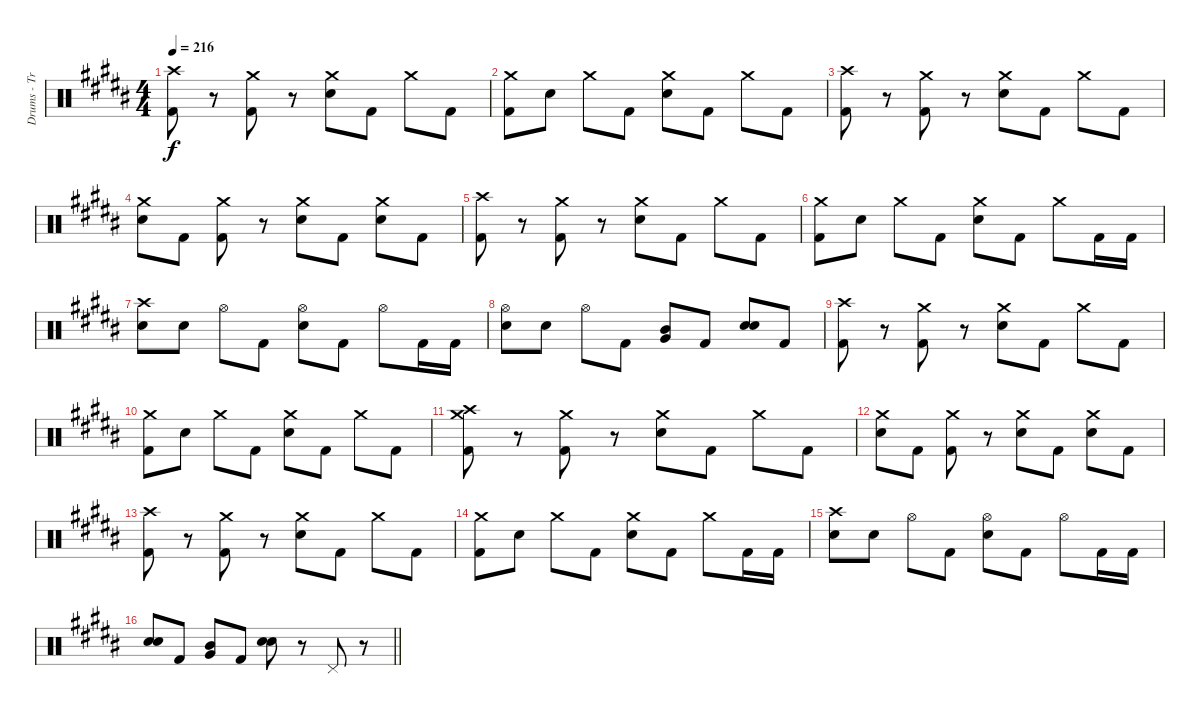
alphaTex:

\track ("Drums - Travis Barker" "Drums - Tr") {instrument percussion}
\staff {score}
\articulation defaults
\ts (4 4)
\tempo 216
\clef neutral
\ks b
("Kick (hit) 2" "Crash high (hit)").8{dy f} r.8 ("Kick (hit) 2" "Crash medium (hit)").8 r.8 ("Snare (hit) 2" "Crash medium (hit)").8 "Kick (hit) 2".8 "Crash medium (hit)".8 "Kick (hit) 2".8 |
("Kick (hit) 2" "Crash medium (hit)").8 "Snare (hit) 2".8 "Crash medium (hit)".8 "Kick (hit) 2".8 ("Snare (hit) 2" "Crash medium (hit)").8 "Kick (hit) 2".8 "Crash medium (hit)".8 "Kick (hit) 2".8 |
("Kick (hit) 2" "Crash high (hit)").8 r.8 ("Kick (hit) 2" "Crash medium (hit)").8 r.8 ("Snare (hit) 2" "Crash medium (hit)").8 "Kick (hit) 2".8 "Crash medium (hit)".8 "Kick (hit) 2".8 |
("Snare (hit) 2" "Crash medium (hit)").8 "Kick (hit) 2".8 ("Kick (hit) 2" "Crash medium (hit)").8 r.8 ("Snare (hit) 2" "Crash medium (hit)").8 "Kick (hit) 2".8 ("Snare (hit) 2" "Crash medium (hit)").8 "Kick (hit) 2".8 |
("Kick (hit) 2" "Crash high (hit)").8 r.8 ("Kick (hit) 2" "Crash medium (hit)").8 r.8 ("Snare (hit) 2" "Crash medium (hit)").8 "Kick (hit) 2".8 "Crash medium (hit)".8 "Kick (hit) 2".8 |
("Kick (hit) 2" "Crash medium (hit)").8 "Snare (hit) 2".8 "Crash medium (hit)".8 "Kick (hit) 2".8 ("Snare (hit) 2" "Crash medium (hit)").8 "Kick (hit) 2".8 "Crash medium (hit)".8 "Kick (hit) 2".16 "Kick (hit) 2".16 |
("Snare (hit) 2" "Crash high (hit)").8 "Snare (hit) 2".8 "Hi-Hat (open)".8 "Kick (hit) 2".8 ("Snare (hit) 2" "Hi-Hat (open)").8 "Kick (hit) 2".8 "Hi-Hat (open)".8 "Kick (hit) 2".16 "Kick (hit) 2".16 |
("Snare (hit) 2" "Hi-Hat (open)").8 "Snare (hit) 2".8 "Hi-Hat (open)".8 "Kick (hit) 2".8 ("Mid Tom (hit)" "Very Low Tom (hit)").8 "Kick (hit) 2".8 ("Snare (hit) 2" "Snare (hit) 2").8 "Kick (hit) 2".8 |
("Kick (hit) 2" "Crash high (hit)").8 r.8 ("Kick (hit) 2" "Crash medium (hit)").8 r.8 ("Snare (hit) 2" "Crash medium (hit)").8 "Kick (hit) 2".8 "Crash medium (hit)".8 "Kick (hit) 2".8 |
("Kick (hit) 2" "Crash medium (hit)").8 "Snare (hit) 2".8 "Crash medium (hit)".8 "Kick (hit) 2".8 ("Snare (hit) 2" "Crash medium (hit)").8 "Kick (hit) 2".8 "Crash medium (hit)".8 "Kick (hit) 2".8 |
("Kick (hit) 2" "Crash high (hit)" "Crash medium (hit)").8 r.8 ("Kick (hit) 2" "Crash medium (hit)").8 r.8 ("Snare (hit) 2" "Crash medium (hit)").8 "Kick (hit) 2".8 "Crash medium (hit)".8 "Kick (hit) 2".8 |
("Snare (hit) 2" "Crash medium (hit)").8 "Kick (hit) 2".8 ("Kick (hit) 2" "Crash medium (hit)").8 r.8 ("Snare (hit) 2" "Crash medium (hit)").8 "Kick (hit) 2".8 ("Snare (hit) 2" "Crash medium (hit)").8 "Kick (hit) 2".8 |
("Kick (hit) 2" "Crash high (hit)").8 r.8 ("Kick (hit) 2" "Crash medium (hit)").8 r.8 ("Snare (hit) 2" "Crash medium (hit)").8 "Kick (hit) 2".8 "Crash medium (hit)".8 "Kick (hit) 2".8 |
("Kick (hit) 2" "Crash medium (hit)").8 "Snare (hit) 2".8 "Crash medium (hit)".8 "Kick (hit) 2".8 ("Snare (hit) 2" "Crash medium (hit)").8 "Kick (hit) 2".8 "Crash medium (hit)".8 "Kick (hit) 2".16 "Kick (hit) 2".16 |
("Snare (hit) 2" "Crash high (hit)").8 "Snare (hit) 2".8 "Hi-Hat (open)".8 "Kick (hit) 2".8 ("Snare (hit) 2" "Hi-Hat (open)").8 "Kick (hit) 2".8 "Hi-Hat (open)".8 "Kick (hit) 2".16 "Kick (hit) 2".16 |
\barLineRight lightlight
("Snare (hit) 2" "Snare (hit) 2").8 "Kick (hit) 2".8 ("Mid Tom (hit)" "Very Low Tom (hit)").8 "Kick (hit) 2".8 ("Snare (hit) 2" "Snare (hit) 2").8 r.8 "Pedal Hi-Hat (hit)".8 r.8
